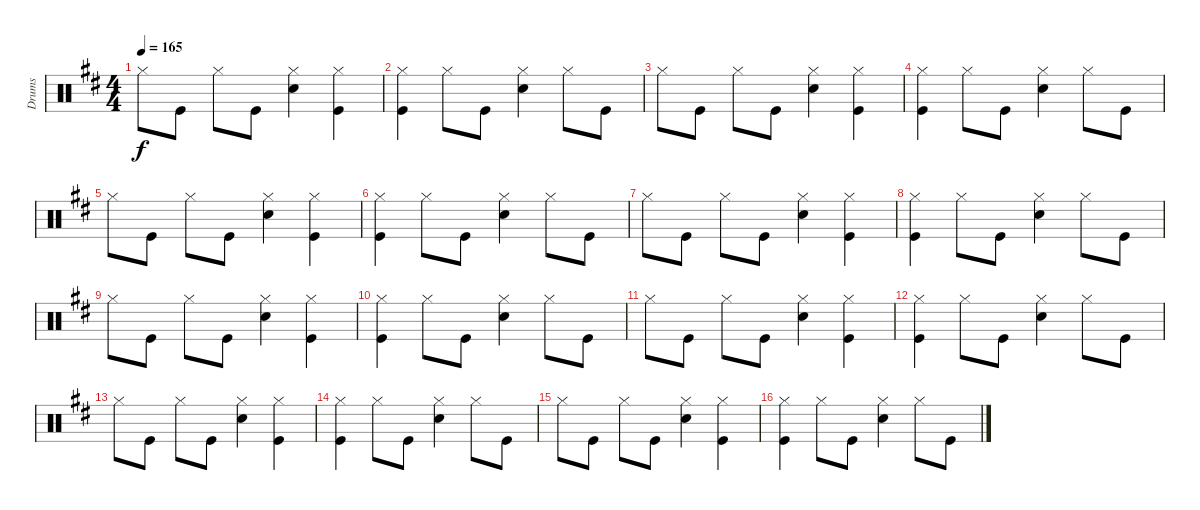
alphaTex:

\track ("Drums" "Drums") {instrument percussion}
\staff {score}
\articulation defaults
\ts (4 4)
\tempo 165
\clef neutral
\ks d "Hi-Hat (closed)".8{dy f} "Kick (hit)".8 "Hi-Hat (closed)".8 "Kick (hit)".8
("Hi-Hat (closed)" "Snare (hit) 2").4 ("Hi-Hat (closed)" "Kick (hit)").4 |
("Hi-Hat (closed)" "Kick (hit)").4 "Hi-Hat (closed)".8 "Kick (hit)".8 ("Hi-Hat (closed)" "Snare (hit) 2").4 "Hi-Hat (closed)".8 "Kick (hit)".8 |
"Hi-Hat (closed)".8 "Kick (hit)".8 "Hi-Hat (closed)".8 "Kick (hit)".8 ("Hi-Hat (closed)" "Snare (hit) 2").4 ("Hi-Hat (closed)" "Kick (hit)").4 |
("Hi-Hat (closed)" "Kick (hit)").4 "Hi-Hat (closed)".8 "Kick (hit)".8 ("Hi-Hat (closed)" "Snare (hit) 2").4 "Hi-Hat (closed)".8 "Kick (hit)".8 |
"Hi-Hat (closed)".8 "Kick (hit)".8 "Hi-Hat (closed)".8 "Kick (hit)".8 ("Hi-Hat (closed)" "Snare (hit) 2").4 ("Hi-Hat (closed)" "Kick (hit)").4 |
("Hi-Hat (closed)" "Kick (hit)").4 "Hi-Hat (closed)".8 "Kick (hit)".8 ("Hi-Hat (closed)" "Snare (hit) 2").4 "Hi-Hat (closed)".8 "Kick (hit)".8 |
"Hi-Hat (closed)".8 "Kick (hit)".8 "Hi-Hat (closed)".8 "Kick (hit)".8 ("Hi-Hat (closed)" "Snare (hit) 2").4 ("Hi-Hat (closed)" "Kick (hit)").4 |
("Hi-Hat (closed)" "Kick (hit)").4 "Hi-Hat (closed)".8 "Kick (hit)".8 ("Hi-Hat (closed)" "Snare (hit) 2").4 "Hi-Hat (closed)".8 "Kick (hit)".8 |
"Hi-Hat (closed)".8 "Kick (hit)".8 "Hi-Hat (closed)".8 "Kick (hit)".8 ("Hi-Hat (closed)" "Snare (hit) 2").4 ("Hi-Hat (closed)" "Kick (hit)").4 |
("Hi-Hat (closed)" "Kick (hit)").4 "Hi-Hat (closed)".8 "Kick (hit)".8 ("Hi-Hat (closed)" "Snare (hit) 2").4 "Hi-Hat (closed)".8 "Kick (hit)".8 |
"Hi-Hat (closed)".8 "Kick (hit)".8 "Hi-Hat (closed)".8 "Kick (hit)".8 ("Hi-Hat (closed)" "Snare (hit) 2").4 ("Hi-Hat (closed)" "Kick (hit)").4 |
("Hi-Hat (closed)" "Kick (hit)").4 "Hi-Hat (closed)".8 "Kick (hit)".8 ("Hi-Hat (closed)" "Snare (hit) 2").4 "Hi-Hat (closed)".8 "Kick (hit)".8 |
"Hi-Hat (closed)".8 "Kick (hit)".8 "Hi-Hat (closed)".8 "Kick (hit)".8 ("Hi-Hat (closed)" "Snare (hit) 2").4 ("Hi-Hat (closed)" "Kick (hit)").4 |
("Hi-Hat (closed)" "Kick (hit)").4 "Hi-Hat (closed)".8 "Kick (hit)".8 ("Hi-Hat (closed)" "Snare (hit) 2").4 "Hi-Hat (closed)".8 "Kick (hit)".8 |
"Hi-Hat (closed)".8 "Kick (hit)".8 "Hi-Hat (closed)".8 "Kick (hit)".8 ("Hi-Hat (closed)" "Snare (hit) 2").4 ("Hi-Hat (closed)" "Kick (hit)").4 |
("Hi-Hat (closed)" "Kick (hit)").4 "Hi-Hat (closed)".8 "Kick (hit)".8 ("Hi-Hat (closed)" "Snare (hit) 2").4 "Hi-Hat (closed)".8 "Kick (hit)".8
